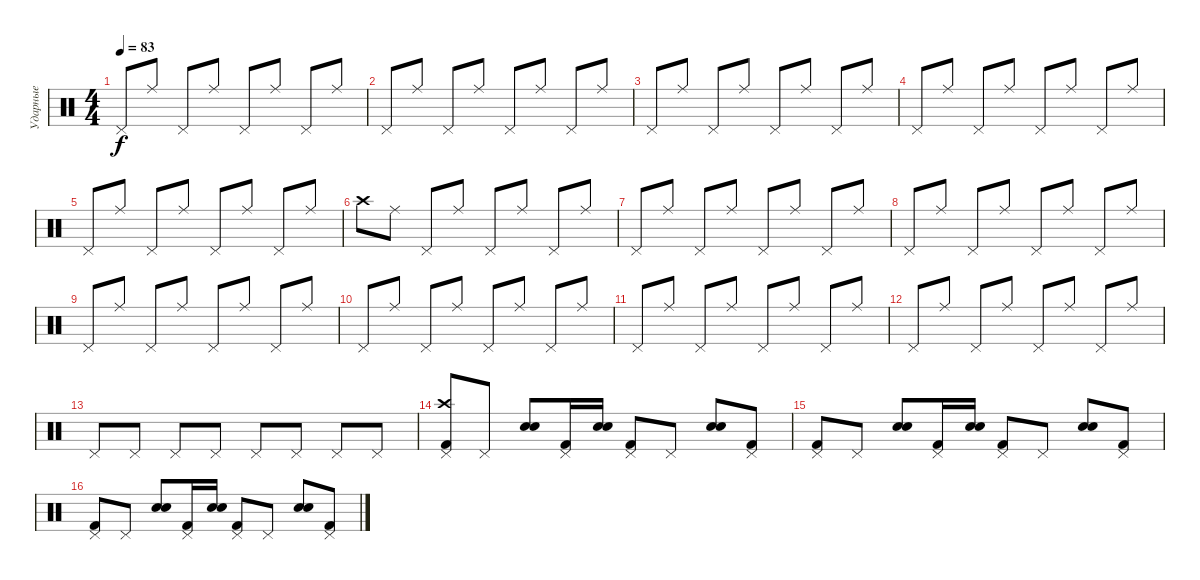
\track ("Ударные" "Ударные") {instrument percussion}
\staff {score}
\articulation defaults
\ts (4 4)
\tempo 83
\clef neutral
\ks c "Pedal Hi-Hat (hit)".8{dy f} "Ride (middle)".8 "Pedal Hi-Hat (hit)".8 "Ride (middle)".8 "Pedal Hi-Hat (hit)".8 "Ride (middle)".8 "Pedal Hi-Hat (hit)".8 "Ride (middle)".8
|
"Pedal Hi-Hat (hit)".8 "Ride (middle)".8 "Pedal Hi-Hat (hit)".8 "Ride (middle)".8 "Pedal Hi-Hat (hit)".8 "Ride (middle)".8 "Pedal Hi-Hat (hit)".8 "Ride (middle)".8 |
"Pedal Hi-Hat (hit)".8 "Ride (middle)".8 "Pedal Hi-Hat (hit)".8 "Ride (middle)".8 "Pedal Hi-Hat (hit)".8 "Ride (middle)".8 "Pedal Hi-Hat (hit)".8 "Ride (middle)".8 |
"Pedal Hi-Hat (hit)".8 "Ride (middle)".8 "Pedal Hi-Hat (hit)".8 "Ride (middle)".8 "Pedal Hi-Hat (hit)".8 "Ride (middle)".8 "Pedal Hi-Hat (hit)".8 "Ride (middle)".8 |
"Pedal Hi-Hat (hit)".8 "Ride (middle)".8 "Pedal Hi-Hat (hit)".8 "Ride (middle)".8 "Pedal Hi-Hat (hit)".8 "Ride (middle)".8 "Pedal Hi-Hat (hit)".8 "Ride (middle)".8 |
"Crash high (hit)".8 "Ride (middle)".8 "Pedal Hi-Hat (hit)".8 "Ride (middle)".8 "Pedal Hi-Hat (hit)".8 "Ride (middle)".8 "Pedal Hi-Hat (hit)".8 "Ride (middle)".8 |
"Pedal Hi-Hat (hit)".8 "Ride (middle)".8 "Pedal Hi-Hat (hit)".8 "Ride (middle)".8 "Pedal Hi-Hat (hit)".8 "Ride (middle)".8 "Pedal Hi-Hat (hit)".8 "Ride (middle)".8 |
"Pedal Hi-Hat (hit)".8 "Ride (middle)".8 "Pedal Hi-Hat (hit)".8 "Ride (middle)".8 "Pedal Hi-Hat (hit)".8 "Ride (middle)".8 "Pedal Hi-Hat (hit)".8 "Ride (middle)".8 |
"Pedal Hi-Hat (hit)".8 "Ride (middle)".8 "Pedal Hi-Hat (hit)".8 "Ride (middle)".8 "Pedal Hi-Hat (hit)".8 "Ride (middle)".8 "Pedal Hi-Hat (hit)".8 "Ride (middle)".8 |
"Pedal Hi-Hat (hit)".8 "Ride (middle)".8 "Pedal Hi-Hat (hit)".8 "Ride (middle)".8 "Pedal Hi-Hat (hit)".8 "Ride (middle)".8 "Pedal Hi-Hat (hit)".8 "Ride (middle)".8 |
"Pedal Hi-Hat (hit)".8 "Ride (middle)".8 "Pedal Hi-Hat (hit)".8 "Ride (middle)".8 "Pedal Hi-Hat (hit)".8 "Ride (middle)".8 "Pedal Hi-Hat (hit)".8 "Ride (middle)".8 |
"Pedal Hi-Hat (hit)".8 "Ride (middle)".8 "Pedal Hi-Hat (hit)".8 "Ride (middle)".8 "Pedal Hi-Hat (hit)".8 "Ride (middle)".8 "Pedal Hi-Hat (hit)".8 "Ride (middle)".8 |
"Pedal Hi-Hat (hit)".8 "Pedal Hi-Hat (hit)".8 "Pedal Hi-Hat (hit)".8 "Pedal Hi-Hat (hit)".8 "Pedal Hi-Hat (hit)".8 "Pedal Hi-Hat (hit)".8 "Pedal Hi-Hat (hit)".8 "Pedal Hi-Hat (hit)".8 |
("Kick (hit) 2" "Pedal Hi-Hat (hit)" "Crash high (hit)").8 "Pedal Hi-Hat (hit)".8 ("Hand Clap (hit)" "Electric Snare (hit)").8 ("Kick (hit) 2" "Pedal Hi-Hat (hit)").16 ("Hand Clap (hit)" "Electric Snare (hit)").16 ("Kick (hit) 2" "Pedal Hi-Hat (hit)").8 "Pedal Hi-Hat (hit)".8 ("Hand Clap (hit)" "Electric Snare (hit)").8 ("Kick (hit) 2" "Pedal Hi-Hat (hit)").8 |
("Kick (hit) 2" "Pedal Hi-Hat (hit)").8 "Pedal Hi-Hat (hit)".8 ("Hand Clap (hit)" "Electric Snare (hit)").8 ("Kick (hit) 2" "Pedal Hi-Hat (hit)").16 ("Hand Clap (hit)" "Electric Snare (hit)").16 ("Kick (hit) 2" "Pedal Hi-Hat (hit)").8 "Pedal Hi-Hat (hit)".8 ("Hand Clap (hit)" "Electric Snare (hit)").8 ("Kick (hit) 2" "Pedal Hi-Hat (hit)").8 |
("Kick (hit) 2" "Pedal Hi-Hat (hit)").8 "Pedal Hi-Hat (hit)".8 ("Hand Clap (hit)" "Electric Snare (hit)").8 ("Kick (hit) 2" "Pedal Hi-Hat (hit)").16 ("Hand Clap (hit)" "Electric Snare (hit)").16 ("Kick (hit) 2" "Pedal Hi-Hat (hit)").8 "Pedal Hi-Hat (hit)".8 ("Hand Clap (hit)" "Electric Snare (hit)").8 ("Kick (hit) 2" "Pedal Hi-Hat (hit)").8
